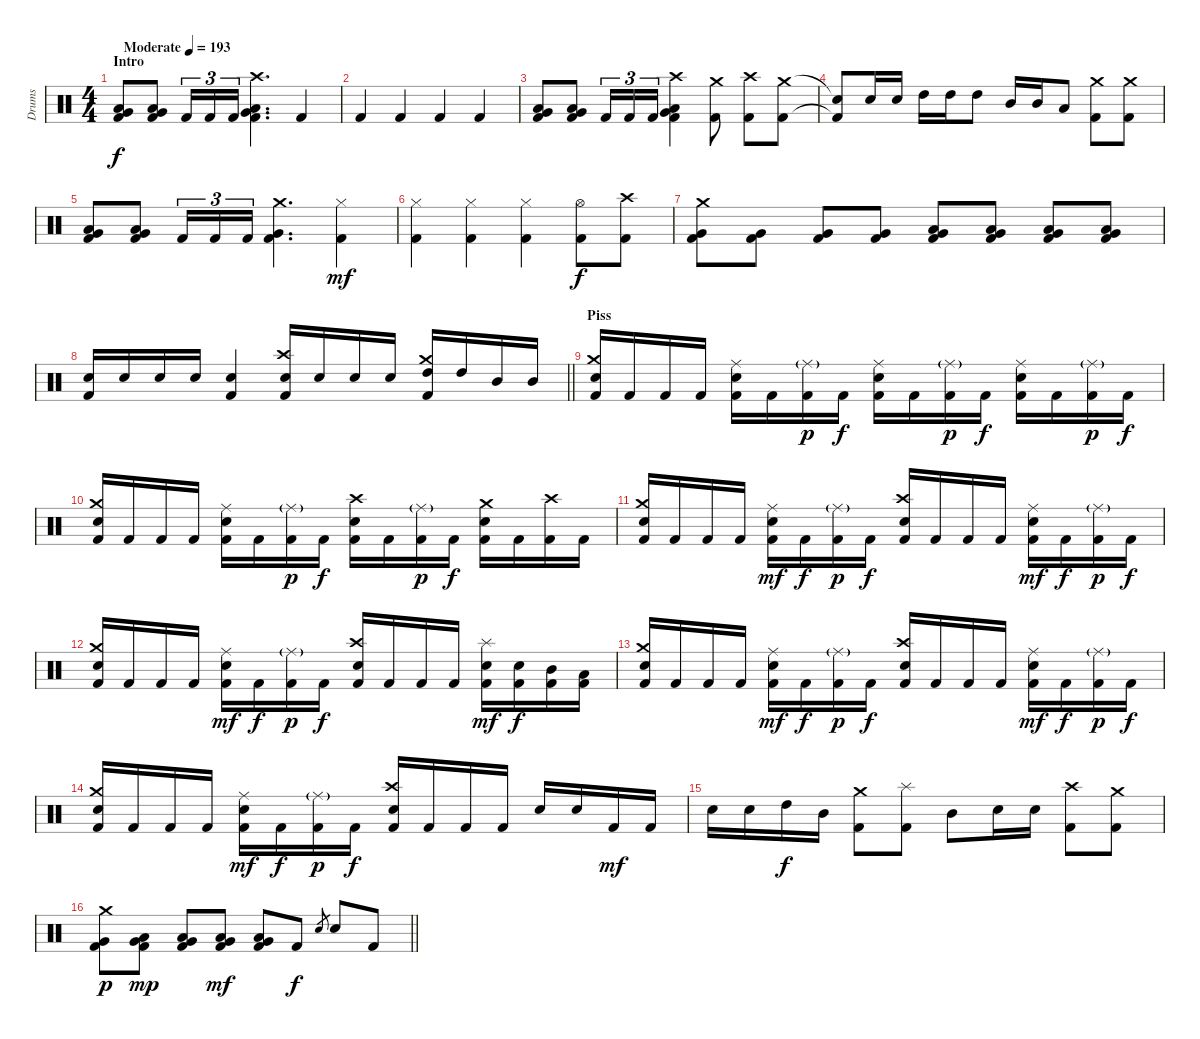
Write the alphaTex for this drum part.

\track ("Drums" "Drums") {instrument percussion}
\staff {score}
\articulation defaults
\ts (4 4)
\section ("" "Intro")
\tempo (193 "Moderate")
\clef neutral
\ks c
("Low Tom (hit)" "Very Low Tom (hit)" "Kick (hit) 2").8{dy f} ("Low Tom (hit)" "Very Low Tom (hit)" "Kick (hit) 2").8 "Kick (hit) 2".16{tu (3 2)} "Kick (hit) 2".16{tu (3 2)} "Kick (hit) 2".16{tu (3 2)} ("Crash high (hit)" "Low Tom (hit)" "Very Low Tom (hit)" "Kick (hit) 2").4{d} "Kick (hit) 2".4 |
"Kick (hit) 2".4 "Kick (hit) 2".4 "Kick (hit) 2".4 "Kick (hit) 2".4 |
("Low Tom (hit)" "Very Low Tom (hit)" "Kick (hit) 2").8 ("Low Tom (hit)" "Very Low Tom (hit)" "Kick (hit) 2").8 "Kick (hit) 2".16{tu (3 2)} "Kick (hit) 2".16{tu (3 2)} "Kick (hit) 2".16{tu (3 2)} ("Crash high (hit)" "Low Tom (hit)" "Very Low Tom (hit)" "Kick (hit) 2").4 ("Crash medium (hit)" "Kick (hit) 2").8 ("Crash high (hit)" "Kick (hit) 2").8 ("Crash medium (hit)" "Kick (hit) 2").8 |
("Snare (hit)"{t} "Kick (hit) 2"{t}).8 "Snare (hit) 2".16 "Snare (hit) 2".16 "High Tom (hit)".16 "High Tom (hit)".16 "High Tom (hit)".8 "Mid Tom (hit)".16 "Mid Tom (hit)".16 "Low Tom (hit)".8 ("Crash medium (hit)" "Kick (hit) 2").8 ("Crash medium (hit)" "Kick (hit) 2").8 |
("Low Tom (hit)" "Very Low Tom (hit)" "Kick (hit) 2").8 ("Low Tom (hit)" "Very Low Tom (hit)" "Kick (hit) 2").8 "Kick (hit) 2".16{tu (3 2)} "Kick (hit) 2".16{tu (3 2)} "Kick (hit) 2".16{tu (3 2)} ("Crash medium (hit)" "Very Low Tom (hit)" "Kick (hit) 2").4{d} ("Hi-Hat (closed)" "Kick (hit) 2").4{dy mf} |
("Hi-Hat (closed)" "Kick (hit) 2").4 ("Hi-Hat (closed)" "Kick (hit) 2").4 ("Hi-Hat (closed)" "Kick (hit) 2").4 ("Hi-Hat (open)" "Kick (hit) 2").8{dy f} ("Crash high (hit)" "Kick (hit) 2").8 |
("Crash medium (hit)" "Very Low Tom (hit)" "Kick (hit) 2").8 ("Very Low Tom (hit)" "Kick (hit) 2").8 ("Very Low Tom (hit)" "Kick (hit) 2").8 ("Very Low Tom (hit)" "Kick (hit) 2").8 ("Low Tom (hit)" "Very Low Tom (hit)" "Kick (hit) 2").8 ("Low Tom (hit)" "Very Low Tom (hit)" "Kick (hit) 2").8 ("Low Tom (hit)" "Very Low Tom (hit)" "Kick (hit) 2").8 ("Low Tom (hit)" "Very Low Tom (hit)" "Kick (hit) 2").8 |
\barLineRight lightlight
("Snare (hit) 2" "Kick (hit) 2").16 "Snare (hit) 2".16 "Snare (hit) 2".16 "Snare (hit) 2".16 ("Snare (hit) 2" "Kick (hit) 2").4 ("Crash high (hit)" "Snare (hit) 2" "Kick (hit) 2").16 "Snare (hit) 2".16 "Snare (hit) 2".16 "Snare (hit) 2".16 ("Crash medium (hit)" "High Tom (hit)" "Kick (hit) 2").16 "High Tom (hit)".16 "Mid Tom (hit)".16 "Mid Tom (hit)".16 |
\section ("" "Piss")
("Crash medium (hit)" "Snare (hit) 2" "Kick (hit) 2").16 "Kick (hit) 2".16 "Kick (hit) 2".16 "Kick (hit) 2".16 ("Ride (middle)" "Snare (hit) 2" "Kick (hit) 2").16 "Kick (hit) 2".16 ("Ride (middle)"{g} "Kick (hit) 2").16{dy p} "Kick (hit) 2".16{dy f} ("Ride (middle)" "Snare (hit) 2" "Kick (hit) 2").16 "Kick (hit) 2".16 ("Ride (middle)"{g} "Kick (hit) 2").16{dy p} "Kick (hit) 2".16{dy f} ("Ride (middle)" "Snare (hit) 2" "Kick (hit) 2").16 "Kick (hit) 2".16 ("Ride (middle)"{g} "Kick (hit) 2").16{dy p} "Kick (hit) 2".16{dy f} |
("Crash medium (hit)" "Snare (hit) 2" "Kick (hit) 2").16 "Kick (hit) 2".16 "Kick (hit) 2".16 "Kick (hit) 2".16 ("Ride (middle)" "Snare (hit) 2" "Kick (hit) 2").16 "Kick (hit) 2".16 ("Ride (middle)"{g} "Kick (hit) 2").16{dy p} "Kick (hit) 2".16{dy f} ("Crash high (hit)" "Snare (hit) 2" "Kick (hit) 2").16 "Kick (hit) 2".16 ("Ride (middle)"{g} "Kick (hit) 2").16{dy p} "Kick (hit) 2".16{dy f} ("Crash medium (hit)" "Snare (hit) 2" "Kick (hit) 2").16 "Kick (hit) 2".16 ("Crash high (hit)" "Kick (hit) 2").16 "Kick (hit) 2".16 |
("Crash medium (hit)" "Snare (hit) 2" "Kick (hit) 2").16 "Kick (hit) 2".16 "Kick (hit) 2".16 "Kick (hit) 2".16 ("Ride (middle)" "Snare (hit) 2" "Kick (hit) 2").16{dy mf} "Kick (hit) 2".16{dy f} ("Ride (middle)"{g} "Kick (hit) 2").16{dy p} "Kick (hit) 2".16{dy f} ("Crash high (hit)" "Snare (hit) 2" "Kick (hit) 2").16 "Kick (hit) 2".16 "Kick (hit) 2".16 "Kick (hit) 2".16 ("Ride (middle)" "Snare (hit) 2" "Kick (hit) 2").16{dy mf} "Kick (hit) 2".16{dy f} ("Ride (middle)"{g} "Kick (hit) 2").16{dy p} "Kick (hit) 2".16{dy f} |
("Crash medium (hit)" "Snare (hit) 2" "Kick (hit) 2").16 "Kick (hit) 2".16 "Kick (hit) 2".16 "Kick (hit) 2".16 ("Ride (middle)" "Snare (hit) 2" "Kick (hit) 2").16{dy mf} "Kick (hit) 2".16{dy f} ("Ride (middle)"{g} "Kick (hit) 2").16{dy p} "Kick (hit) 2".16{dy f} ("Crash high (hit)" "Snare (hit) 2" "Kick (hit) 2").16 "Kick (hit) 2".16 "Kick (hit) 2".16 "Kick (hit) 2".16 ("Splash (hit)" "Snare (hit) 2" "Kick (hit) 2").16{dy mf} ("Snare (hit) 2" "Kick (hit) 2").16{dy f} ("Mid Tom (hit)" "Kick (hit) 2").16 ("Low Tom (hit)" "Kick (hit) 2").16 |
("Crash medium (hit)" "Snare (hit) 2" "Kick (hit) 2").16 "Kick (hit) 2".16 "Kick (hit) 2".16 "Kick (hit) 2".16 ("Ride (middle)" "Snare (hit) 2" "Kick (hit) 2").16{dy mf} "Kick (hit) 2".16{dy f} ("Ride (middle)"{g} "Kick (hit) 2").16{dy p} "Kick (hit) 2".16{dy f} ("Crash high (hit)" "Snare (hit) 2" "Kick (hit) 2").16 "Kick (hit) 2".16 "Kick (hit) 2".16 "Kick (hit) 2".16 ("Ride (middle)" "Snare (hit) 2" "Kick (hit) 2").16{dy mf} "Kick (hit) 2".16{dy f} ("Ride (middle)"{g} "Kick (hit) 2").16{dy p} "Kick (hit) 2".16{dy f} |
("Crash medium (hit)" "Snare (hit) 2" "Kick (hit) 2").16 "Kick (hit) 2".16 "Kick (hit) 2".16 "Kick (hit) 2".16 ("Ride (middle)" "Snare (hit) 2" "Kick (hit) 2").16{dy mf} "Kick (hit) 2".16{dy f} ("Ride (middle)"{g} "Kick (hit) 2").16{dy p} "Kick (hit) 2".16{dy f} ("Crash high (hit)" "Snare (hit) 2" "Kick (hit) 2").16 "Kick (hit) 2".16 "Kick (hit) 2".16 "Kick (hit) 2".16 "Snare (hit) 2".16 "Snare (hit) 2".16 "Kick (hit) 2".16{dy mf} "Kick (hit) 2".16 |
"Snare (hit) 2".16 "Snare (hit) 2".16 "High Tom (hit)".16{dy f} "Mid Tom (hit)".16 ("Crash medium (hit)" "Kick (hit) 2").8 ("Splash (hit)" "Kick (hit) 2").8 "Mid Tom (hit)".8 "Snare (hit) 2".16 "Snare (hit) 2".16 ("Crash high (hit)" "Kick (hit) 2").8 ("Crash medium (hit)" "Kick (hit) 2").8 |
\barLineRight lightlight
("Crash medium (hit)" "Very Low Tom (hit)" "Kick (hit) 2").8{dy p} ("Low Tom (hit)" "Very Low Tom (hit)" "Kick (hit) 2").8{dy mp} ("Low Tom (hit)" "Very Low Tom (hit)" "Kick (hit) 2").8 ("Low Tom (hit)" "Very Low Tom (hit)" "Kick (hit) 2").8{dy mf} ("Low Tom (hit)" "Very Low Tom (hit)" "Kick (hit) 2").8 "Kick (hit) 2".8{dy f} "Snare (hit) 2".8{gr} "Snare (hit) 2".8 "Kick (hit) 2".8
